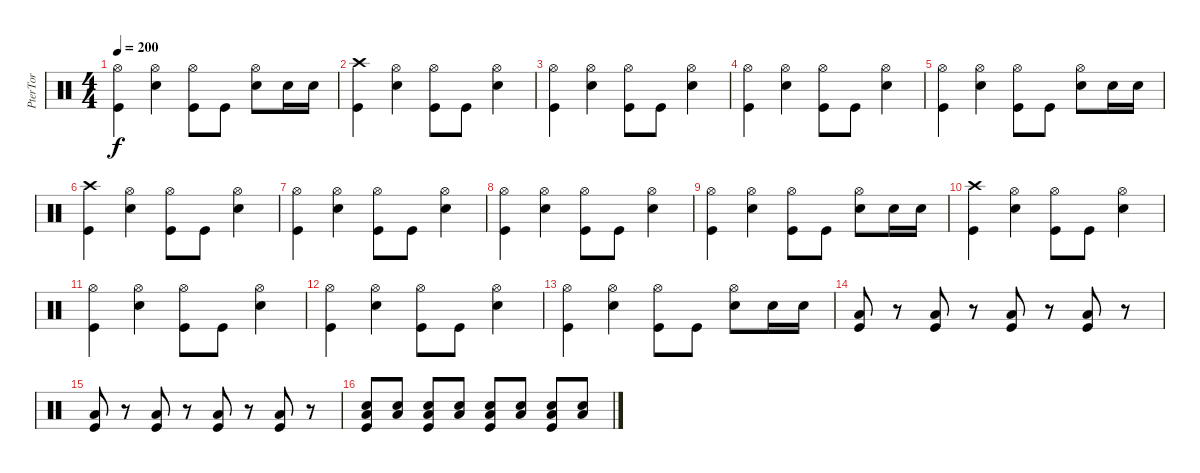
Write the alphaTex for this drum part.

\track ("PterTor" "PterTor") {instrument percussion}
\staff {score}
\articulation defaults
\ts (4 4)
\tempo 200
\clef neutral
\ks c
("Hi-Hat (open)" "Kick (hit)").4{dy f} ("Hi-Hat (open)" "Snare (hit) 2").4 ("Hi-Hat (open)" "Kick (hit)").8 "Kick (hit)".8 ("Hi-Hat (open)" "Snare (hit) 2").8 "Snare (hit) 2".16 "Snare (hit) 2".16 |
("Crash high (hit)" "Kick (hit)").4 ("Hi-Hat (open)" "Snare (hit) 2").4 ("Hi-Hat (open)" "Kick (hit)").8 "Kick (hit)".8 ("Hi-Hat (open)" "Snare (hit) 2").4 |
("Hi-Hat (open)" "Kick (hit)").4 ("Hi-Hat (open)" "Snare (hit) 2").4 ("Hi-Hat (open)" "Kick (hit)").8 "Kick (hit)".8 ("Hi-Hat (open)" "Snare (hit) 2").4 |
("Hi-Hat (open)" "Kick (hit)").4 ("Hi-Hat (open)" "Snare (hit) 2").4 ("Hi-Hat (open)" "Kick (hit)").8 "Kick (hit)".8 ("Hi-Hat (open)" "Snare (hit) 2").4 |
("Hi-Hat (open)" "Kick (hit)").4 ("Hi-Hat (open)" "Snare (hit) 2").4 ("Hi-Hat (open)" "Kick (hit)").8 "Kick (hit)".8 ("Hi-Hat (open)" "Snare (hit) 2").8 "Snare (hit) 2".16 "Snare (hit) 2".16 |
("Crash high (hit)" "Kick (hit)").4 ("Hi-Hat (open)" "Snare (hit) 2").4 ("Hi-Hat (open)" "Kick (hit)").8 "Kick (hit)".8 ("Hi-Hat (open)" "Snare (hit) 2").4 |
("Hi-Hat (open)" "Kick (hit)").4 ("Hi-Hat (open)" "Snare (hit) 2").4 ("Hi-Hat (open)" "Kick (hit)").8 "Kick (hit)".8 ("Hi-Hat (open)" "Snare (hit) 2").4 |
("Hi-Hat (open)" "Kick (hit)").4 ("Hi-Hat (open)" "Snare (hit) 2").4 ("Hi-Hat (open)" "Kick (hit)").8 "Kick (hit)".8 ("Hi-Hat (open)" "Snare (hit) 2").4 |
("Hi-Hat (open)" "Kick (hit)").4 ("Hi-Hat (open)" "Snare (hit) 2").4 ("Hi-Hat (open)" "Kick (hit)").8 "Kick (hit)".8 ("Hi-Hat (open)" "Snare (hit) 2").8 "Snare (hit) 2".16 "Snare (hit) 2".16 |
("Crash high (hit)" "Kick (hit)").4 ("Hi-Hat (open)" "Snare (hit) 2").4 ("Hi-Hat (open)" "Kick (hit)").8 "Kick (hit)".8 ("Hi-Hat (open)" "Snare (hit) 2").4 |
("Hi-Hat (open)" "Kick (hit)").4 ("Hi-Hat (open)" "Snare (hit) 2").4 ("Hi-Hat (open)" "Kick (hit)").8 "Kick (hit)".8 ("Hi-Hat (open)" "Snare (hit) 2").4 |
("Hi-Hat (open)" "Kick (hit)").4 ("Hi-Hat (open)" "Snare (hit) 2").4 ("Hi-Hat (open)" "Kick (hit)").8 "Kick (hit)".8 ("Hi-Hat (open)" "Snare (hit) 2").4 |
("Hi-Hat (open)" "Kick (hit)").4 ("Hi-Hat (open)" "Snare (hit) 2").4 ("Hi-Hat (open)" "Kick (hit)").8 "Kick (hit)".8 ("Hi-Hat (open)" "Snare (hit) 2").8 "Snare (hit) 2".16 "Snare (hit) 2".16 |
("Low Floor Tom (hit)" "Kick (hit)").8 r.8 ("Low Floor Tom (hit)" "Kick (hit)").8 r.8 ("Low Floor Tom (hit)" "Kick (hit)").8 r.8 ("Low Floor Tom (hit)" "Kick (hit)").8 r.8 |
("Low Floor Tom (hit)" "Kick (hit)").8 r.8 ("Low Floor Tom (hit)" "Kick (hit)").8 r.8 ("Low Floor Tom (hit)" "Kick (hit)").8 r.8 ("Low Floor Tom (hit)" "Kick (hit)").8 r.8 |
("Electric Snare (hit)" "Low Floor Tom (hit)" "Kick (hit)").8 ("Electric Snare (hit)" "Low Floor Tom (hit)").8 ("Electric Snare (hit)" "Low Floor Tom (hit)" "Kick (hit)").8 ("Electric Snare (hit)" "Low Floor Tom (hit)").8 ("Electric Snare (hit)" "Low Floor Tom (hit)" "Kick (hit)").8 ("Electric Snare (hit)" "Low Floor Tom (hit)").8 ("Electric Snare (hit)" "Low Floor Tom (hit)" "Kick (hit)").8 ("Electric Snare (hit)" "Low Floor Tom (hit)").8
